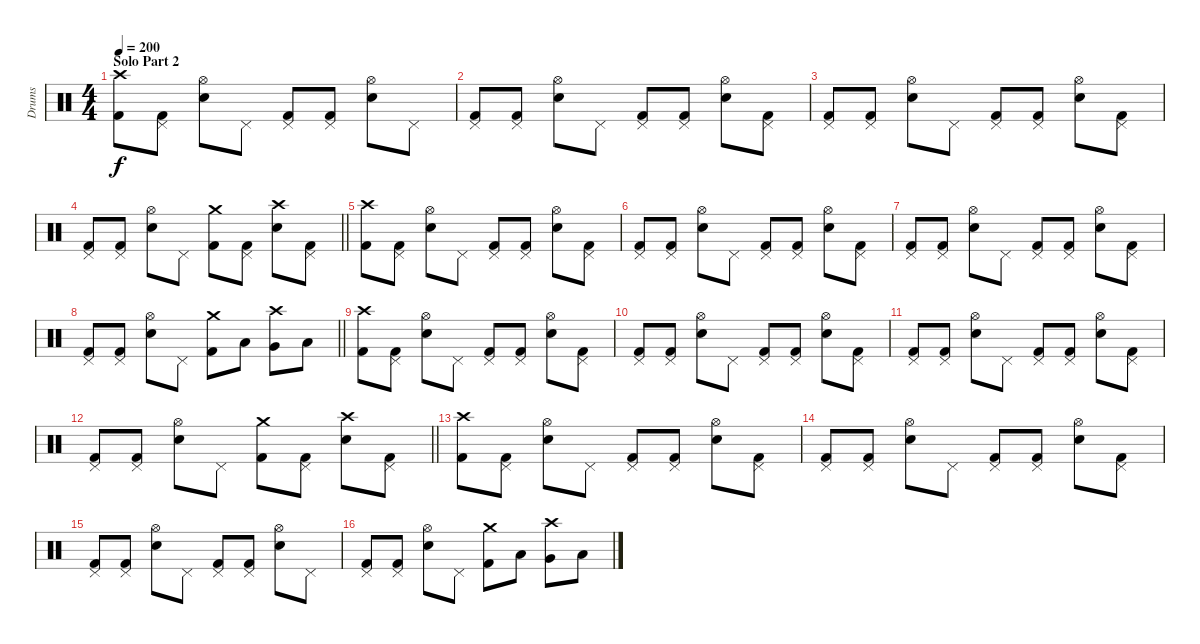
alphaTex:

\track ("Drums" "Drums") {instrument percussion}
\staff {score}
\articulation defaults
\ts (4 4)
\section ("" "Solo Part 2")
\tempo 200
\clef neutral
\ks c
("Crash high (hit)" "Kick (hit) 2").8{dy f} ("Pedal Hi-Hat (hit)" "Kick (hit) 2").8 ("Hi-Hat (open)" "Electric Snare (hit)").8 "Pedal Hi-Hat (hit)".8 ("Pedal Hi-Hat (hit)" "Kick (hit) 2").8 ("Pedal Hi-Hat (hit)" "Kick (hit) 2").8 ("Hi-Hat (open)" "Electric Snare (hit)").8 "Pedal Hi-Hat (hit)".8 |
("Pedal Hi-Hat (hit)" "Kick (hit) 2").8 ("Pedal Hi-Hat (hit)" "Kick (hit) 2").8 ("Hi-Hat (open)" "Electric Snare (hit)").8 "Pedal Hi-Hat (hit)".8 ("Pedal Hi-Hat (hit)" "Kick (hit) 2").8 ("Pedal Hi-Hat (hit)" "Kick (hit) 2").8 ("Hi-Hat (open)" "Electric Snare (hit)").8 ("Pedal Hi-Hat (hit)" "Kick (hit) 2").8 |
("Pedal Hi-Hat (hit)" "Kick (hit) 2").8 ("Pedal Hi-Hat (hit)" "Kick (hit) 2").8 ("Hi-Hat (open)" "Electric Snare (hit)").8 "Pedal Hi-Hat (hit)".8 ("Pedal Hi-Hat (hit)" "Kick (hit) 2").8 ("Pedal Hi-Hat (hit)" "Kick (hit) 2").8 ("Hi-Hat (open)" "Electric Snare (hit)").8 ("Pedal Hi-Hat (hit)" "Kick (hit) 2").8 |
\barLineRight lightlight
("Pedal Hi-Hat (hit)" "Kick (hit) 2").8 ("Pedal Hi-Hat (hit)" "Kick (hit) 2").8 ("Hi-Hat (open)" "Electric Snare (hit)").8 "Pedal Hi-Hat (hit)".8 ("Crash medium (hit)" "Kick (hit) 2").8 ("Pedal Hi-Hat (hit)" "Kick (hit) 2").8 ("Crash high (hit)" "Electric Snare (hit)").8 ("Pedal Hi-Hat (hit)" "Kick (hit) 2").8 |
("Crash high (hit)" "Kick (hit) 2").8 ("Pedal Hi-Hat (hit)" "Kick (hit) 2").8 ("Hi-Hat (open)" "Electric Snare (hit)").8 "Pedal Hi-Hat (hit)".8 ("Pedal Hi-Hat (hit)" "Kick (hit) 2").8 ("Pedal Hi-Hat (hit)" "Kick (hit) 2").8 ("Hi-Hat (open)" "Electric Snare (hit)").8 ("Pedal Hi-Hat (hit)" "Kick (hit) 2").8 |
("Pedal Hi-Hat (hit)" "Kick (hit) 2").8 ("Pedal Hi-Hat (hit)" "Kick (hit) 2").8 ("Hi-Hat (open)" "Electric Snare (hit)").8 "Pedal Hi-Hat (hit)".8 ("Pedal Hi-Hat (hit)" "Kick (hit) 2").8 ("Pedal Hi-Hat (hit)" "Kick (hit) 2").8 ("Hi-Hat (open)" "Electric Snare (hit)").8 ("Pedal Hi-Hat (hit)" "Kick (hit) 2").8 |
("Pedal Hi-Hat (hit)" "Kick (hit) 2").8 ("Pedal Hi-Hat (hit)" "Kick (hit) 2").8 ("Hi-Hat (open)" "Electric Snare (hit)").8 "Pedal Hi-Hat (hit)".8 ("Pedal Hi-Hat (hit)" "Kick (hit) 2").8 ("Pedal Hi-Hat (hit)" "Kick (hit) 2").8 ("Hi-Hat (open)" "Electric Snare (hit)").8 ("Pedal Hi-Hat (hit)" "Kick (hit) 2").8 |
\barLineRight lightlight
("Pedal Hi-Hat (hit)" "Kick (hit) 2").8 ("Pedal Hi-Hat (hit)" "Kick (hit) 2").8 ("Hi-Hat (open)" "Electric Snare (hit)").8 "Pedal Hi-Hat (hit)".8 ("Crash medium (hit)" "Kick (hit) 2").8 "Low Tom (hit)".8 ("Crash high (hit)" "Very Low Tom (hit)").8 "Low Floor Tom (hit)".8 |
("Crash high (hit)" "Kick (hit) 2").8 ("Pedal Hi-Hat (hit)" "Kick (hit) 2").8 ("Hi-Hat (open)" "Electric Snare (hit)").8 "Pedal Hi-Hat (hit)".8 ("Pedal Hi-Hat (hit)" "Kick (hit) 2").8 ("Pedal Hi-Hat (hit)" "Kick (hit) 2").8 ("Hi-Hat (open)" "Electric Snare (hit)").8 ("Pedal Hi-Hat (hit)" "Kick (hit) 2").8 |
("Pedal Hi-Hat (hit)" "Kick (hit) 2").8 ("Pedal Hi-Hat (hit)" "Kick (hit) 2").8 ("Hi-Hat (open)" "Electric Snare (hit)").8 "Pedal Hi-Hat (hit)".8 ("Pedal Hi-Hat (hit)" "Kick (hit) 2").8 ("Pedal Hi-Hat (hit)" "Kick (hit) 2").8 ("Hi-Hat (open)" "Electric Snare (hit)").8 ("Pedal Hi-Hat (hit)" "Kick (hit) 2").8 |
("Pedal Hi-Hat (hit)" "Kick (hit) 2").8 ("Pedal Hi-Hat (hit)" "Kick (hit) 2").8 ("Hi-Hat (open)" "Electric Snare (hit)").8 "Pedal Hi-Hat (hit)".8 ("Pedal Hi-Hat (hit)" "Kick (hit) 2").8 ("Pedal Hi-Hat (hit)" "Kick (hit) 2").8 ("Hi-Hat (open)" "Electric Snare (hit)").8 ("Pedal Hi-Hat (hit)" "Kick (hit) 2").8 |
\barLineRight lightlight
("Pedal Hi-Hat (hit)" "Kick (hit) 2").8 ("Pedal Hi-Hat (hit)" "Kick (hit) 2").8 ("Hi-Hat (open)" "Electric Snare (hit)").8 "Pedal Hi-Hat (hit)".8 ("Crash medium (hit)" "Kick (hit) 2").8 ("Pedal Hi-Hat (hit)" "Kick (hit) 2").8 ("Crash high (hit)" "Electric Snare (hit)").8 ("Pedal Hi-Hat (hit)" "Kick (hit) 2").8 |
("Crash high (hit)" "Kick (hit) 2").8 ("Pedal Hi-Hat (hit)" "Kick (hit) 2").8 ("Hi-Hat (open)" "Electric Snare (hit)").8 "Pedal Hi-Hat (hit)".8 ("Pedal Hi-Hat (hit)" "Kick (hit) 2").8 ("Pedal Hi-Hat (hit)" "Kick (hit) 2").8 ("Hi-Hat (open)" "Electric Snare (hit)").8 ("Pedal Hi-Hat (hit)" "Kick (hit) 2").8 |
("Pedal Hi-Hat (hit)" "Kick (hit) 2").8 ("Pedal Hi-Hat (hit)" "Kick (hit) 2").8 ("Hi-Hat (open)" "Electric Snare (hit)").8 "Pedal Hi-Hat (hit)".8 ("Pedal Hi-Hat (hit)" "Kick (hit) 2").8 ("Pedal Hi-Hat (hit)" "Kick (hit) 2").8 ("Hi-Hat (open)" "Electric Snare (hit)").8 ("Pedal Hi-Hat (hit)" "Kick (hit) 2").8 |
("Pedal Hi-Hat (hit)" "Kick (hit) 2").8 ("Pedal Hi-Hat (hit)" "Kick (hit) 2").8 ("Hi-Hat (open)" "Electric Snare (hit)").8 "Pedal Hi-Hat (hit)".8 ("Pedal Hi-Hat (hit)" "Kick (hit) 2").8 ("Pedal Hi-Hat (hit)" "Kick (hit) 2").8 ("Hi-Hat (open)" "Electric Snare (hit)").8 "Pedal Hi-Hat (hit)".8 |
("Pedal Hi-Hat (hit)" "Kick (hit) 2").8 ("Pedal Hi-Hat (hit)" "Kick (hit) 2").8 ("Hi-Hat (open)" "Electric Snare (hit)").8 "Pedal Hi-Hat (hit)".8 ("Crash medium (hit)" "Kick (hit) 2").8 "Low Tom (hit)".8 ("Crash high (hit)" "Very Low Tom (hit)").8 "Low Floor Tom (hit)".8
